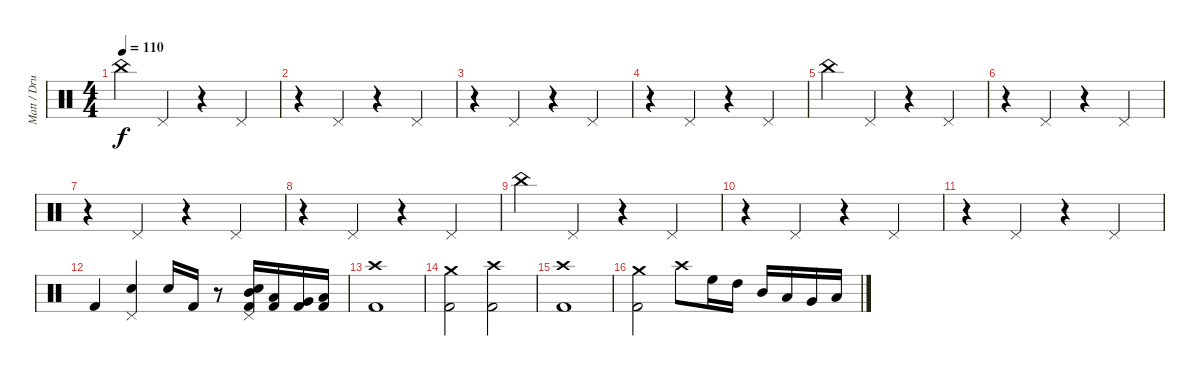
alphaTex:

\track ("Matt / Drums" "Matt / Dru") {instrument percussion}
\staff {score}
\articulation defaults
\ts (4 4)
\tempo 110
\clef neutral
\ks c "China (hit)".4{dy f} "Pedal Hi-Hat (hit)".4
r.4 "Pedal Hi-Hat (hit)".4 |
r.4 "Pedal Hi-Hat (hit)".4 r.4 "Pedal Hi-Hat (hit)".4 |
r.4 "Pedal Hi-Hat (hit)".4 r.4 "Pedal Hi-Hat (hit)".4 |
r.4 "Pedal Hi-Hat (hit)".4 r.4 "Pedal Hi-Hat (hit)".4 |
"China (hit)".4 "Pedal Hi-Hat (hit)".4 r.4 "Pedal Hi-Hat (hit)".4 |
r.4 "Pedal Hi-Hat (hit)".4 r.4 "Pedal Hi-Hat (hit)".4 |
r.4 "Pedal Hi-Hat (hit)".4 r.4 "Pedal Hi-Hat (hit)".4 |
r.4 "Pedal Hi-Hat (hit)".4 r.4 "Pedal Hi-Hat (hit)".4 |
"China (hit)".4 "Pedal Hi-Hat (hit)".4 r.4 "Pedal Hi-Hat (hit)".4 |
r.4 "Pedal Hi-Hat (hit)".4 r.4 "Pedal Hi-Hat (hit)".4 |
r.4 "Pedal Hi-Hat (hit)".4 r.4 "Pedal Hi-Hat (hit)".4 |
"Kick (hit) 2".4 ("Pedal Hi-Hat (hit)" "Snare (hit) 2").4 "Snare (hit) 2".16 "Kick (hit) 2".16 r.8 ("Pedal Hi-Hat (hit)" "Mid Tom (hit)" "Snare (hit) 2" "Kick (hit) 2").16 ("Low Tom (hit)" "Kick (hit) 2").16 ("Very Low Tom (hit)" "Kick (hit) 2").16 ("Low Floor Tom (hit)" "Kick (hit) 2").16 |
("Crash high (hit)" "Kick (hit) 2").1 |
("Crash medium (hit)" "Kick (hit) 2").2 ("Crash high (hit)" "Kick (hit) 2").2 |
("Crash high (hit)" "Kick (hit) 2").1 |
("Crash medium (hit)" "Kick (hit) 2").2 "Crash high (hit)".8 "High Floor Tom (hit)".16 "High Tom (hit)".16 "Mid Tom (hit)".16 "Low Tom (hit)".16 "Very Low Tom (hit)".16 "Low Floor Tom (hit)".16
